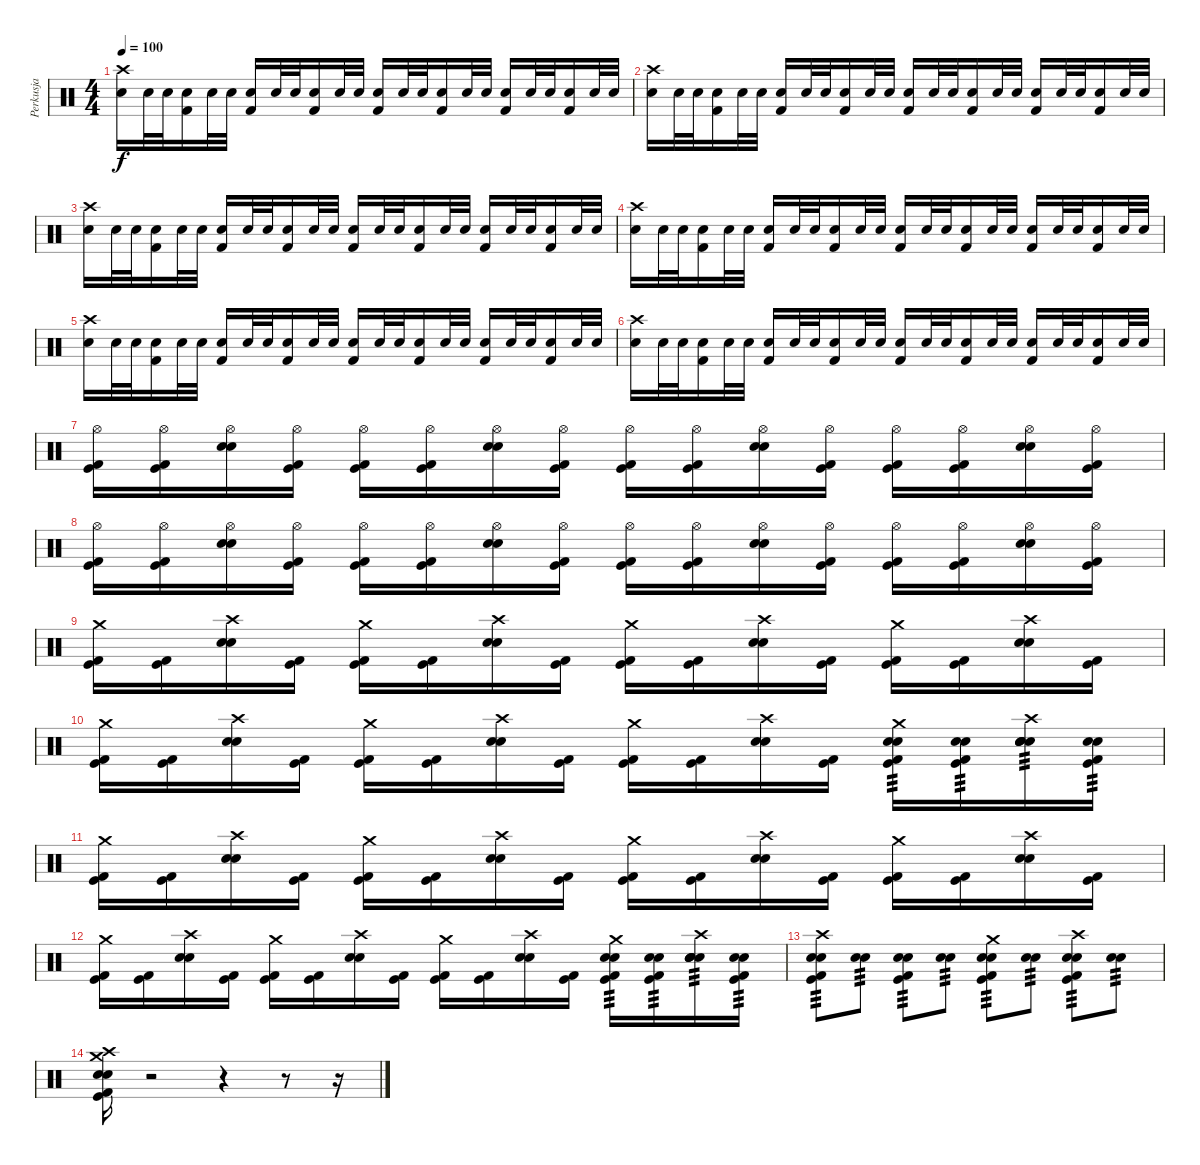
\track ("Perkusja" "Perkusja") {instrument percussion}
\staff {score}
\articulation defaults
\ts (4 4)
\tempo 100
\clef neutral
\ks c
("Snare (hit) 2" "Crash high (hit)").16{dy f} "Snare (hit) 2".32 "Snare (hit) 2".32 ("Snare (hit) 2" "Kick (hit) 2").16 "Snare (hit) 2".32 "Snare (hit) 2".32 ("Snare (hit) 2" "Kick (hit) 2").16 "Snare (hit) 2".32 "Snare (hit) 2".32 ("Snare (hit) 2" "Kick (hit) 2").16 "Snare (hit) 2".32 "Snare (hit) 2".32 ("Snare (hit) 2" "Kick (hit) 2").16 "Snare (hit) 2".32 "Snare (hit) 2".32 ("Snare (hit) 2" "Kick (hit) 2").16 "Snare (hit) 2".32 "Snare (hit) 2".32 ("Snare (hit) 2" "Kick (hit) 2").16 "Snare (hit) 2".32 "Snare (hit) 2".32 ("Snare (hit) 2" "Kick (hit) 2").16 "Snare (hit) 2".32 "Snare (hit) 2".32 |
("Snare (hit) 2" "Crash high (hit)").16 "Snare (hit) 2".32 "Snare (hit) 2".32 ("Snare (hit) 2" "Kick (hit) 2").16 "Snare (hit) 2".32 "Snare (hit) 2".32 ("Snare (hit) 2" "Kick (hit) 2").16 "Snare (hit) 2".32 "Snare (hit) 2".32 ("Snare (hit) 2" "Kick (hit) 2").16 "Snare (hit) 2".32 "Snare (hit) 2".32 ("Snare (hit) 2" "Kick (hit) 2").16 "Snare (hit) 2".32 "Snare (hit) 2".32 ("Snare (hit) 2" "Kick (hit) 2").16 "Snare (hit) 2".32 "Snare (hit) 2".32 ("Snare (hit) 2" "Kick (hit) 2").16 "Snare (hit) 2".32 "Snare (hit) 2".32 ("Snare (hit) 2" "Kick (hit) 2").16 "Snare (hit) 2".32 "Snare (hit) 2".32 |
("Snare (hit) 2" "Crash high (hit)").16 "Snare (hit) 2".32 "Snare (hit) 2".32 ("Snare (hit) 2" "Kick (hit) 2").16 "Snare (hit) 2".32 "Snare (hit) 2".32 ("Snare (hit) 2" "Kick (hit) 2").16 "Snare (hit) 2".32 "Snare (hit) 2".32 ("Snare (hit) 2" "Kick (hit) 2").16 "Snare (hit) 2".32 "Snare (hit) 2".32 ("Snare (hit) 2" "Kick (hit) 2").16 "Snare (hit) 2".32 "Snare (hit) 2".32 ("Snare (hit) 2" "Kick (hit) 2").16 "Snare (hit) 2".32 "Snare (hit) 2".32 ("Snare (hit) 2" "Kick (hit) 2").16 "Snare (hit) 2".32 "Snare (hit) 2".32 ("Snare (hit) 2" "Kick (hit) 2").16 "Snare (hit) 2".32 "Snare (hit) 2".32 |
("Snare (hit) 2" "Crash high (hit)").16 "Snare (hit) 2".32 "Snare (hit) 2".32 ("Snare (hit) 2" "Kick (hit) 2").16 "Snare (hit) 2".32 "Snare (hit) 2".32 ("Snare (hit) 2" "Kick (hit) 2").16 "Snare (hit) 2".32 "Snare (hit) 2".32 ("Snare (hit) 2" "Kick (hit) 2").16 "Snare (hit) 2".32 "Snare (hit) 2".32 ("Snare (hit) 2" "Kick (hit) 2").16 "Snare (hit) 2".32 "Snare (hit) 2".32 ("Snare (hit) 2" "Kick (hit) 2").16 "Snare (hit) 2".32 "Snare (hit) 2".32 ("Snare (hit) 2" "Kick (hit) 2").16 "Snare (hit) 2".32 "Snare (hit) 2".32 ("Snare (hit) 2" "Kick (hit) 2").16 "Snare (hit) 2".32 "Snare (hit) 2".32 |
("Snare (hit) 2" "Crash high (hit)").16 "Snare (hit) 2".32 "Snare (hit) 2".32 ("Snare (hit) 2" "Kick (hit) 2").16 "Snare (hit) 2".32 "Snare (hit) 2".32 ("Snare (hit) 2" "Kick (hit) 2").16 "Snare (hit) 2".32 "Snare (hit) 2".32 ("Snare (hit) 2" "Kick (hit) 2").16 "Snare (hit) 2".32 "Snare (hit) 2".32 ("Snare (hit) 2" "Kick (hit) 2").16 "Snare (hit) 2".32 "Snare (hit) 2".32 ("Snare (hit) 2" "Kick (hit) 2").16 "Snare (hit) 2".32 "Snare (hit) 2".32 ("Snare (hit) 2" "Kick (hit) 2").16 "Snare (hit) 2".32 "Snare (hit) 2".32 ("Snare (hit) 2" "Kick (hit) 2").16 "Snare (hit) 2".32 "Snare (hit) 2".32 |
("Snare (hit) 2" "Crash high (hit)").16 "Snare (hit) 2".32 "Snare (hit) 2".32 ("Snare (hit) 2" "Kick (hit) 2").16 "Snare (hit) 2".32 "Snare (hit) 2".32 ("Snare (hit) 2" "Kick (hit) 2").16 "Snare (hit) 2".32 "Snare (hit) 2".32 ("Snare (hit) 2" "Kick (hit) 2").16 "Snare (hit) 2".32 "Snare (hit) 2".32 ("Snare (hit) 2" "Kick (hit) 2").16 "Snare (hit) 2".32 "Snare (hit) 2".32 ("Snare (hit) 2" "Kick (hit) 2").16 "Snare (hit) 2".32 "Snare (hit) 2".32 ("Snare (hit) 2" "Kick (hit) 2").16 "Snare (hit) 2".32 "Snare (hit) 2".32 ("Snare (hit) 2" "Kick (hit) 2").16 "Snare (hit) 2".32 "Snare (hit) 2".32 |
("Kick (hit) 2" "Kick (hit)" "Hi-Hat (open)").16 ("Kick (hit) 2" "Kick (hit)" "Hi-Hat (open)").16 ("Snare (hit) 2" "Electric Snare (hit)" "Hi-Hat (open)").16 ("Kick (hit) 2" "Kick (hit)" "Hi-Hat (open)").16 ("Kick (hit) 2" "Kick (hit)" "Hi-Hat (open)").16 ("Kick (hit) 2" "Kick (hit)" "Hi-Hat (open)").16 ("Snare (hit) 2" "Electric Snare (hit)" "Hi-Hat (open)").16 ("Kick (hit) 2" "Kick (hit)" "Hi-Hat (open)").16 ("Kick (hit) 2" "Kick (hit)" "Hi-Hat (open)").16 ("Kick (hit) 2" "Kick (hit)" "Hi-Hat (open)").16 ("Snare (hit) 2" "Electric Snare (hit)" "Hi-Hat (open)").16 ("Kick (hit) 2" "Kick (hit)" "Hi-Hat (open)").16 ("Kick (hit) 2" "Kick (hit)" "Hi-Hat (open)").16 ("Kick (hit) 2" "Kick (hit)" "Hi-Hat (open)").16 ("Snare (hit) 2" "Electric Snare (hit)" "Hi-Hat (open)").16 ("Kick (hit) 2" "Kick (hit)" "Hi-Hat (open)").16 |
("Kick (hit) 2" "Kick (hit)" "Hi-Hat (open)").16 ("Kick (hit) 2" "Kick (hit)" "Hi-Hat (open)").16 ("Snare (hit) 2" "Electric Snare (hit)" "Hi-Hat (open)").16 ("Kick (hit) 2" "Kick (hit)" "Hi-Hat (open)").16 ("Kick (hit) 2" "Kick (hit)" "Hi-Hat (open)").16 ("Kick (hit) 2" "Kick (hit)" "Hi-Hat (open)").16 ("Snare (hit) 2" "Electric Snare (hit)" "Hi-Hat (open)").16 ("Kick (hit) 2" "Kick (hit)" "Hi-Hat (open)").16 ("Kick (hit) 2" "Kick (hit)" "Hi-Hat (open)").16 ("Kick (hit) 2" "Kick (hit)" "Hi-Hat (open)").16 ("Snare (hit) 2" "Electric Snare (hit)" "Hi-Hat (open)").16 ("Kick (hit) 2" "Kick (hit)" "Hi-Hat (open)").16 ("Kick (hit) 2" "Kick (hit)" "Hi-Hat (open)").16 ("Kick (hit) 2" "Kick (hit)" "Hi-Hat (open)").16 ("Snare (hit) 2" "Electric Snare (hit)" "Hi-Hat (open)").16 ("Kick (hit) 2" "Kick (hit)" "Hi-Hat (open)").16 |
("Kick (hit) 2" "Kick (hit)" "Crash medium (hit)").16 ("Kick (hit) 2" "Kick (hit)").16 ("Snare (hit) 2" "Electric Snare (hit)" "Crash high (hit)").16 ("Kick (hit) 2" "Kick (hit)").16 ("Kick (hit) 2" "Kick (hit)" "Crash medium (hit)").16 ("Kick (hit) 2" "Kick (hit)").16 ("Snare (hit) 2" "Electric Snare (hit)" "Crash high (hit)").16 ("Kick (hit) 2" "Kick (hit)").16 ("Kick (hit) 2" "Kick (hit)" "Crash medium (hit)").16 ("Kick (hit) 2" "Kick (hit)").16 ("Snare (hit) 2" "Electric Snare (hit)" "Crash high (hit)").16 ("Kick (hit) 2" "Kick (hit)").16 ("Kick (hit) 2" "Kick (hit)" "Crash medium (hit)").16 ("Kick (hit) 2" "Kick (hit)").16 ("Snare (hit) 2" "Electric Snare (hit)" "Crash high (hit)").16 ("Kick (hit) 2" "Kick (hit)").16 |
("Kick (hit) 2" "Kick (hit)" "Crash medium (hit)").16 ("Kick (hit) 2" "Kick (hit)").16 ("Snare (hit) 2" "Electric Snare (hit)" "Crash high (hit)").16 ("Kick (hit) 2" "Kick (hit)").16 ("Kick (hit) 2" "Kick (hit)" "Crash medium (hit)").16 ("Kick (hit) 2" "Kick (hit)").16 ("Snare (hit) 2" "Electric Snare (hit)" "Crash high (hit)").16 ("Kick (hit) 2" "Kick (hit)").16 ("Kick (hit) 2" "Kick (hit)" "Crash medium (hit)").16 ("Kick (hit) 2" "Kick (hit)").16 ("Snare (hit) 2" "Electric Snare (hit)" "Crash high (hit)").16 ("Kick (hit) 2" "Kick (hit)").16 ("Kick (hit) 2" "Kick (hit)" "Crash medium (hit)" "Snare (hit) 2" "Electric Snare (hit)").16{tp 3} ("Kick (hit) 2" "Kick (hit)" "Snare (hit) 2" "Electric Snare (hit)").16{tp 3} ("Snare (hit) 2" "Electric Snare (hit)" "Crash high (hit)" "Snare (hit) 2" "Electric Snare (hit)").16{tp 3} ("Kick (hit) 2" "Kick (hit)" "Snare (hit) 2" "Electric Snare (hit)").16{tp 3} |
("Kick (hit) 2" "Kick (hit)" "Crash medium (hit)").16 ("Kick (hit) 2" "Kick (hit)").16 ("Snare (hit) 2" "Electric Snare (hit)" "Crash high (hit)").16 ("Kick (hit) 2" "Kick (hit)").16 ("Kick (hit) 2" "Kick (hit)" "Crash medium (hit)").16 ("Kick (hit) 2" "Kick (hit)").16 ("Snare (hit) 2" "Electric Snare (hit)" "Crash high (hit)").16 ("Kick (hit) 2" "Kick (hit)").16 ("Kick (hit) 2" "Kick (hit)" "Crash medium (hit)").16 ("Kick (hit) 2" "Kick (hit)").16 ("Snare (hit) 2" "Electric Snare (hit)" "Crash high (hit)").16 ("Kick (hit) 2" "Kick (hit)").16 ("Kick (hit) 2" "Kick (hit)" "Crash medium (hit)").16 ("Kick (hit) 2" "Kick (hit)").16 ("Snare (hit) 2" "Electric Snare (hit)" "Crash high (hit)").16 ("Kick (hit) 2" "Kick (hit)").16 |
("Kick (hit) 2" "Kick (hit)" "Crash medium (hit)").16 ("Kick (hit) 2" "Kick (hit)").16 ("Snare (hit) 2" "Electric Snare (hit)" "Crash high (hit)").16 ("Kick (hit) 2" "Kick (hit)").16 ("Kick (hit) 2" "Kick (hit)" "Crash medium (hit)").16 ("Kick (hit) 2" "Kick (hit)").16 ("Snare (hit) 2" "Electric Snare (hit)" "Crash high (hit)").16 ("Kick (hit) 2" "Kick (hit)").16 ("Kick (hit) 2" "Kick (hit)" "Crash medium (hit)").16 ("Kick (hit) 2" "Kick (hit)").16 ("Snare (hit) 2" "Electric Snare (hit)" "Crash high (hit)").16 ("Kick (hit) 2" "Kick (hit)").16 ("Kick (hit) 2" "Kick (hit)" "Crash medium (hit)" "Snare (hit) 2" "Electric Snare (hit)").16{tp 3} ("Kick (hit) 2" "Kick (hit)" "Snare (hit) 2" "Electric Snare (hit)").16{tp 3} ("Snare (hit) 2" "Electric Snare (hit)" "Crash high (hit)" "Snare (hit) 2" "Electric Snare (hit)").16{tp 3} ("Kick (hit) 2" "Kick (hit)" "Snare (hit) 2" "Electric Snare (hit)").16{tp 3} |
("Crash high (hit)" "Kick (hit) 2" "Kick (hit)" "Snare (hit) 2" "Electric Snare (hit)").8{tp 3} ("Snare (hit) 2" "Electric Snare (hit)").8{tp 3} ("Kick (hit) 2" "Kick (hit)" "Snare (hit) 2" "Electric Snare (hit)").8{tp 3} ("Snare (hit) 2" "Electric Snare (hit)").8{tp 3} ("Crash medium (hit)" "Kick (hit) 2" "Kick (hit)" "Snare (hit) 2" "Electric Snare (hit)").8{tp 3} ("Snare (hit) 2" "Electric Snare (hit)").8{tp 3} ("Crash high (hit)" "Kick (hit) 2" "Kick (hit)" "Snare (hit) 2" "Electric Snare (hit)").8{tp 3} ("Snare (hit) 2" "Electric Snare (hit)").8{tp 3} |
("Crash high (hit)" "Kick (hit) 2" "Kick (hit)" "Crash medium (hit)" "Snare (hit) 2" "Electric Snare (hit)").16 r.2 r.4 r.8 r.16
